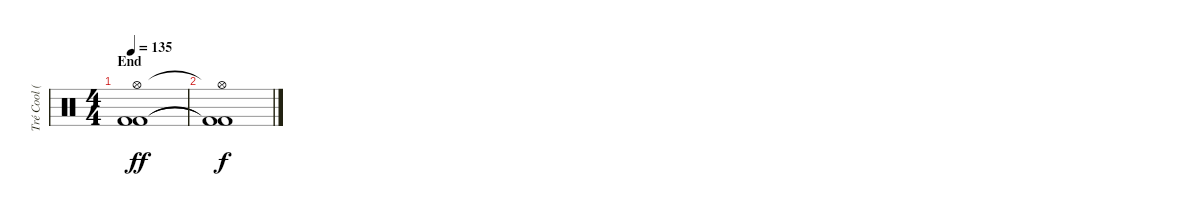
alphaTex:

\track ("Tré Cool (Drums)" "Tré Cool (") {instrument percussion}
\staff {score}
\articulation defaults
\ts (4 4)
\section ("" "End")
\tempo 135
\clef neutral
\ks c
("Kick (hit) 2" "Kick (hit) 2" "Hi-Hat (open)").1{dy ff} |
("Kick (hit) 2"{t} "Kick (hit) 2"{t} "Hi-Hat (open)"{t}).1{dy f}
